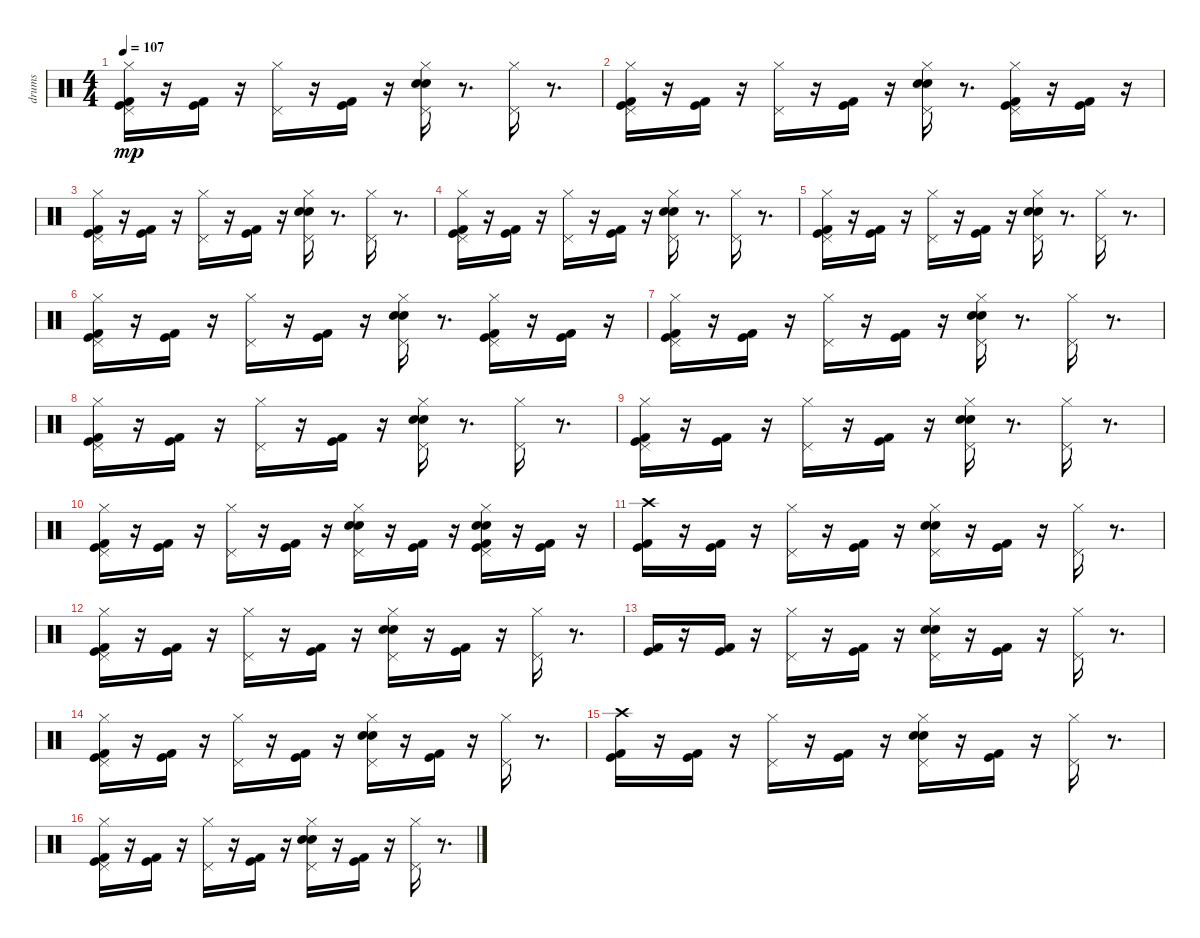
\track ("drums" "drums") {instrument percussion}
\staff {score}
\articulation defaults
\ts (4 4)
\tempo 107
\clef neutral
\ks c
("Hi-Hat (closed)" "Kick (hit) 2" "Kick (hit)" "Pedal Hi-Hat (hit)").16{dy mp} r.16 ("Kick (hit) 2" "Kick (hit)").16 r.16 ("Hi-Hat (closed)" "Pedal Hi-Hat (hit)").16 r.16 ("Kick (hit) 2" "Kick (hit)").16 r.16 ("Electric Snare (hit)" "Hi-Hat (closed)" "Snare (hit) 2" "Pedal Hi-Hat (hit)").16 r.8{d} ("Hi-Hat (closed)" "Pedal Hi-Hat (hit)").16 r.8{d} |
("Hi-Hat (closed)" "Kick (hit) 2" "Kick (hit)" "Pedal Hi-Hat (hit)").16 r.16 ("Kick (hit) 2" "Kick (hit)").16 r.16 ("Hi-Hat (closed)" "Pedal Hi-Hat (hit)").16 r.16 ("Kick (hit) 2" "Kick (hit)").16 r.16 ("Electric Snare (hit)" "Hi-Hat (closed)" "Snare (hit) 2" "Pedal Hi-Hat (hit)").16 r.8{d} ("Hi-Hat (closed)" "Kick (hit) 2" "Kick (hit)" "Pedal Hi-Hat (hit)").16 r.16 ("Kick (hit) 2" "Kick (hit)").16 r.16 |
("Hi-Hat (closed)" "Kick (hit) 2" "Kick (hit)" "Pedal Hi-Hat (hit)").16 r.16 ("Kick (hit) 2" "Kick (hit)").16 r.16 ("Hi-Hat (closed)" "Pedal Hi-Hat (hit)").16 r.16 ("Kick (hit) 2" "Kick (hit)").16 r.16 ("Electric Snare (hit)" "Hi-Hat (closed)" "Snare (hit) 2" "Pedal Hi-Hat (hit)").16 r.8{d} ("Hi-Hat (closed)" "Pedal Hi-Hat (hit)").16 r.8{d} |
("Hi-Hat (closed)" "Kick (hit) 2" "Kick (hit)" "Pedal Hi-Hat (hit)").16 r.16 ("Kick (hit) 2" "Kick (hit)").16 r.16 ("Hi-Hat (closed)" "Pedal Hi-Hat (hit)").16 r.16 ("Kick (hit) 2" "Kick (hit)").16 r.16 ("Electric Snare (hit)" "Hi-Hat (closed)" "Snare (hit) 2" "Pedal Hi-Hat (hit)").16 r.8{d} ("Hi-Hat (closed)" "Pedal Hi-Hat (hit)").16 r.8{d} |
("Hi-Hat (closed)" "Kick (hit) 2" "Kick (hit)" "Pedal Hi-Hat (hit)").16 r.16 ("Kick (hit) 2" "Kick (hit)").16 r.16 ("Hi-Hat (closed)" "Pedal Hi-Hat (hit)").16 r.16 ("Kick (hit) 2" "Kick (hit)").16 r.16 ("Electric Snare (hit)" "Hi-Hat (closed)" "Snare (hit) 2" "Pedal Hi-Hat (hit)").16 r.8{d} ("Hi-Hat (closed)" "Pedal Hi-Hat (hit)").16 r.8{d} |
("Hi-Hat (closed)" "Kick (hit) 2" "Kick (hit)" "Pedal Hi-Hat (hit)").16 r.16 ("Kick (hit) 2" "Kick (hit)").16 r.16 ("Hi-Hat (closed)" "Pedal Hi-Hat (hit)").16 r.16 ("Kick (hit) 2" "Kick (hit)").16 r.16 ("Electric Snare (hit)" "Hi-Hat (closed)" "Snare (hit) 2" "Pedal Hi-Hat (hit)").16 r.8{d} ("Hi-Hat (closed)" "Kick (hit) 2" "Kick (hit)" "Pedal Hi-Hat (hit)").16 r.16 ("Kick (hit) 2" "Kick (hit)").16 r.16 |
("Hi-Hat (closed)" "Kick (hit) 2" "Kick (hit)" "Pedal Hi-Hat (hit)").16 r.16 ("Kick (hit) 2" "Kick (hit)").16 r.16 ("Hi-Hat (closed)" "Pedal Hi-Hat (hit)").16 r.16 ("Kick (hit) 2" "Kick (hit)").16 r.16 ("Electric Snare (hit)" "Hi-Hat (closed)" "Snare (hit) 2" "Pedal Hi-Hat (hit)").16 r.8{d} ("Hi-Hat (closed)" "Pedal Hi-Hat (hit)").16 r.8{d} |
("Hi-Hat (closed)" "Kick (hit) 2" "Kick (hit)" "Pedal Hi-Hat (hit)").16 r.16 ("Kick (hit) 2" "Kick (hit)").16 r.16 ("Hi-Hat (closed)" "Pedal Hi-Hat (hit)").16 r.16 ("Kick (hit) 2" "Kick (hit)").16 r.16 ("Electric Snare (hit)" "Hi-Hat (closed)" "Snare (hit) 2" "Pedal Hi-Hat (hit)").16 r.8{d} ("Hi-Hat (closed)" "Pedal Hi-Hat (hit)").16 r.8{d} |
("Hi-Hat (closed)" "Kick (hit) 2" "Kick (hit)" "Pedal Hi-Hat (hit)").16 r.16 ("Kick (hit) 2" "Kick (hit)").16 r.16 ("Hi-Hat (closed)" "Pedal Hi-Hat (hit)").16 r.16 ("Kick (hit) 2" "Kick (hit)").16 r.16 ("Electric Snare (hit)" "Hi-Hat (closed)" "Snare (hit) 2" "Pedal Hi-Hat (hit)").16 r.8{d} ("Hi-Hat (closed)" "Pedal Hi-Hat (hit)").16 r.8{d} |
("Hi-Hat (closed)" "Kick (hit) 2" "Kick (hit)" "Pedal Hi-Hat (hit)").16 r.16 ("Kick (hit) 2" "Kick (hit)").16 r.16 ("Hi-Hat (closed)" "Pedal Hi-Hat (hit)").16 r.16 ("Kick (hit) 2" "Kick (hit)").16 r.16 ("Electric Snare (hit)" "Hi-Hat (closed)" "Snare (hit) 2" "Pedal Hi-Hat (hit)").16 r.16 ("Kick (hit) 2" "Kick (hit)").16 r.16 ("Hi-Hat (closed)" "Kick (hit) 2" "Kick (hit)" "Pedal Hi-Hat (hit)" "Snare (hit) 2" "Electric Snare (hit)").16 r.16 ("Kick (hit) 2" "Kick (hit)").16 r.16 |
("Kick (hit) 2" "Kick (hit)" "Crash high (hit)").16 r.16 ("Kick (hit) 2" "Kick (hit)").16 r.16 ("Hi-Hat (closed)" "Pedal Hi-Hat (hit)").16 r.16 ("Kick (hit) 2" "Kick (hit)").16 r.16 ("Electric Snare (hit)" "Hi-Hat (closed)" "Snare (hit) 2" "Pedal Hi-Hat (hit)").16 r.16 ("Kick (hit)" "Kick (hit) 2").16 r.16 ("Hi-Hat (closed)" "Pedal Hi-Hat (hit)").16 r.8{d} |
("Hi-Hat (closed)" "Kick (hit) 2" "Kick (hit)" "Pedal Hi-Hat (hit)").16 r.16 ("Kick (hit) 2" "Kick (hit)").16 r.16 ("Hi-Hat (closed)" "Pedal Hi-Hat (hit)").16 r.16 ("Kick (hit) 2" "Kick (hit)").16 r.16 ("Electric Snare (hit)" "Hi-Hat (closed)" "Snare (hit) 2" "Pedal Hi-Hat (hit)").16 r.16 ("Kick (hit)" "Kick (hit) 2").16 r.16 ("Hi-Hat (closed)" "Pedal Hi-Hat (hit)").16 r.8{d} |
("Kick (hit) 2" "Kick (hit)").16 r.16 ("Kick (hit) 2" "Kick (hit)").16 r.16 ("Hi-Hat (closed)" "Pedal Hi-Hat (hit)").16 r.16 ("Kick (hit) 2" "Kick (hit)").16 r.16 ("Electric Snare (hit)" "Hi-Hat (closed)" "Snare (hit) 2" "Pedal Hi-Hat (hit)").16 r.16 ("Kick (hit)" "Kick (hit) 2").16 r.16 ("Hi-Hat (closed)" "Pedal Hi-Hat (hit)").16 r.8{d} |
("Hi-Hat (closed)" "Kick (hit) 2" "Kick (hit)" "Pedal Hi-Hat (hit)").16 r.16 ("Kick (hit) 2" "Kick (hit)").16 r.16 ("Hi-Hat (closed)" "Pedal Hi-Hat (hit)").16 r.16 ("Kick (hit) 2" "Kick (hit)").16 r.16 ("Electric Snare (hit)" "Hi-Hat (closed)" "Snare (hit) 2" "Pedal Hi-Hat (hit)").16 r.16 ("Kick (hit)" "Kick (hit) 2").16 r.16 ("Hi-Hat (closed)" "Pedal Hi-Hat (hit)").16 r.8{d} |
("Kick (hit) 2" "Kick (hit)" "Crash high (hit)").16 r.16 ("Kick (hit) 2" "Kick (hit)").16 r.16 ("Hi-Hat (closed)" "Pedal Hi-Hat (hit)").16 r.16 ("Kick (hit) 2" "Kick (hit)").16 r.16 ("Electric Snare (hit)" "Hi-Hat (closed)" "Snare (hit) 2" "Pedal Hi-Hat (hit)").16 r.16 ("Kick (hit)" "Kick (hit) 2").16 r.16 ("Hi-Hat (closed)" "Pedal Hi-Hat (hit)").16 r.8{d} |
("Hi-Hat (closed)" "Kick (hit) 2" "Kick (hit)" "Pedal Hi-Hat (hit)").16 r.16 ("Kick (hit) 2" "Kick (hit)").16 r.16 ("Hi-Hat (closed)" "Pedal Hi-Hat (hit)").16 r.16 ("Kick (hit) 2" "Kick (hit)").16 r.16 ("Electric Snare (hit)" "Hi-Hat (closed)" "Snare (hit) 2" "Pedal Hi-Hat (hit)").16 r.16 ("Kick (hit)" "Kick (hit) 2").16 r.16 ("Hi-Hat (closed)" "Pedal Hi-Hat (hit)").16 r.8{d}
